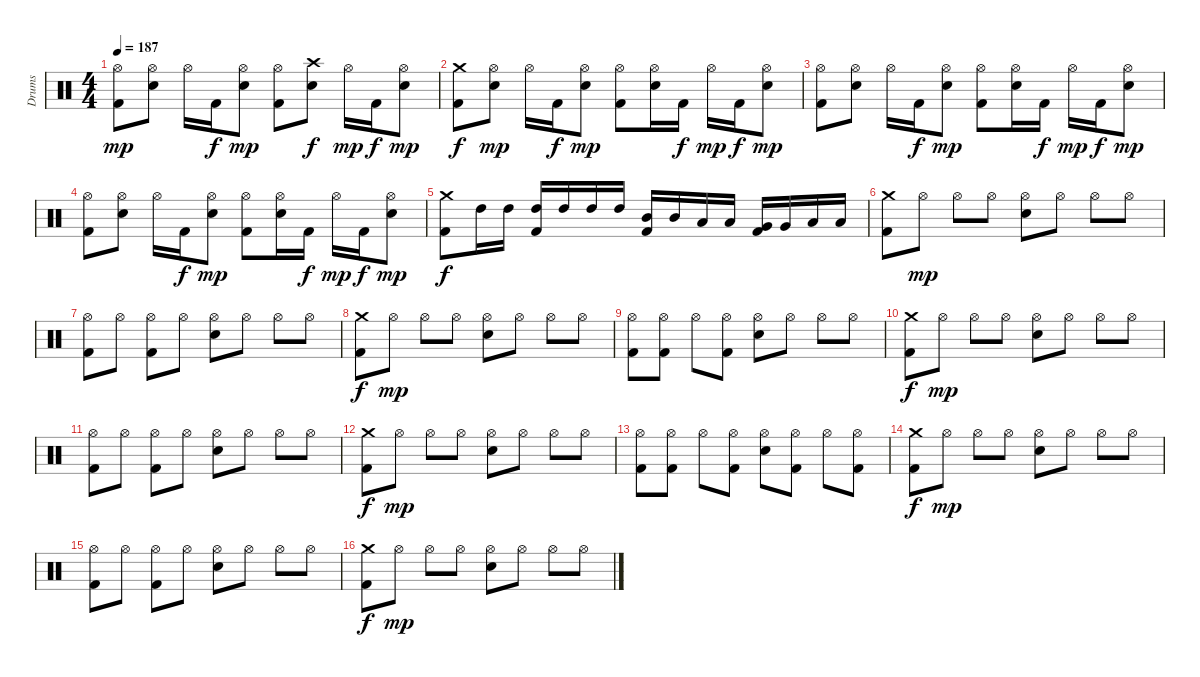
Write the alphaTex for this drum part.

\track ("Drums" "Drums") {instrument percussion}
\staff {score}
\articulation defaults
\ts (4 4)
\tempo 187
\clef neutral
\ks c
("Hi-Hat (open)" "Kick (hit) 2").8{dy mp} ("Hi-Hat (open)" "Snare (hit) 2").8 "Hi-Hat (open)".16 "Kick (hit) 2".16{dy f} ("Hi-Hat (open)" "Snare (hit) 2").8{dy mp} ("Hi-Hat (open)" "Kick (hit) 2").8 ("Crash high (hit)" "Snare (hit) 2").8{dy f} "Hi-Hat (open)".16{dy mp} "Kick (hit) 2".16{dy f} ("Hi-Hat (open)" "Snare (hit) 2").8{dy mp} |
("Crash medium (hit)" "Kick (hit) 2").8{dy f} ("Hi-Hat (open)" "Snare (hit) 2").8{dy mp} "Hi-Hat (open)".16 "Kick (hit) 2".16{dy f} ("Hi-Hat (open)" "Snare (hit) 2").8{dy mp} ("Hi-Hat (open)" "Kick (hit) 2").8 ("Hi-Hat (open)" "Snare (hit) 2").16 "Kick (hit) 2".16{dy f} "Hi-Hat (open)".16{dy mp} "Kick (hit) 2".16{dy f} ("Hi-Hat (open)" "Snare (hit) 2").8{dy mp} |
("Hi-Hat (open)" "Kick (hit) 2").8 ("Hi-Hat (open)" "Snare (hit) 2").8 "Hi-Hat (open)".16 "Kick (hit) 2".16{dy f} ("Hi-Hat (open)" "Snare (hit) 2").8{dy mp} ("Hi-Hat (open)" "Kick (hit) 2").8 ("Hi-Hat (open)" "Snare (hit) 2").16 "Kick (hit) 2".16{dy f} "Hi-Hat (open)".16{dy mp} "Kick (hit) 2".16{dy f} ("Hi-Hat (open)" "Snare (hit) 2").8{dy mp} |
("Hi-Hat (open)" "Kick (hit) 2").8 ("Hi-Hat (open)" "Snare (hit) 2").8 "Hi-Hat (open)".16 "Kick (hit) 2".16{dy f} ("Hi-Hat (open)" "Snare (hit) 2").8{dy mp} ("Hi-Hat (open)" "Kick (hit) 2").8 ("Hi-Hat (open)" "Snare (hit) 2").16 "Kick (hit) 2".16{dy f} "Hi-Hat (open)".16{dy mp} "Kick (hit) 2".16{dy f} ("Hi-Hat (open)" "Snare (hit) 2").8{dy mp} |
("Crash medium (hit)" "Kick (hit) 2").8{dy f} "High Tom (hit)".16 "High Tom (hit)".16 ("High Tom (hit)" "Kick (hit) 2").16 "High Tom (hit)".16 "High Tom (hit)".16 "High Tom (hit)".16 ("Mid Tom (hit)" "Kick (hit) 2").16 "Mid Tom (hit)".16 "Low Tom (hit)".16 "Low Tom (hit)".16 ("Very Low Tom (hit)" "Kick (hit) 2").16 "Very Low Tom (hit)".16 "Low Floor Tom (hit)".16 "Low Floor Tom (hit)".16 |
("Crash medium (hit)" "Kick (hit) 2").8 "Hi-Hat (open)".8{dy mp} "Hi-Hat (open)".8 "Hi-Hat (open)".8 ("Hi-Hat (open)" "Snare (hit) 2").8 "Hi-Hat (open)".8 "Hi-Hat (open)".8 "Hi-Hat (open)".8 |
("Hi-Hat (open)" "Kick (hit) 2").8 "Hi-Hat (open)".8 ("Hi-Hat (open)" "Kick (hit) 2").8 "Hi-Hat (open)".8 ("Hi-Hat (open)" "Snare (hit) 2").8 "Hi-Hat (open)".8 "Hi-Hat (open)".8 "Hi-Hat (open)".8 |
("Crash medium (hit)" "Kick (hit) 2").8{dy f} "Hi-Hat (open)".8{dy mp} "Hi-Hat (open)".8 "Hi-Hat (open)".8 ("Hi-Hat (open)" "Snare (hit) 2").8 "Hi-Hat (open)".8 "Hi-Hat (open)".8 "Hi-Hat (open)".8 |
("Hi-Hat (open)" "Kick (hit) 2").8 ("Hi-Hat (open)" "Kick (hit) 2").8 "Hi-Hat (open)".8 ("Hi-Hat (open)" "Kick (hit) 2").8 ("Hi-Hat (open)" "Snare (hit) 2").8 "Hi-Hat (open)".8 "Hi-Hat (open)".8 "Hi-Hat (open)".8 |
("Crash medium (hit)" "Kick (hit) 2").8{dy f} "Hi-Hat (open)".8{dy mp} "Hi-Hat (open)".8 "Hi-Hat (open)".8 ("Hi-Hat (open)" "Snare (hit) 2").8 "Hi-Hat (open)".8 "Hi-Hat (open)".8 "Hi-Hat (open)".8 |
("Hi-Hat (open)" "Kick (hit) 2").8 "Hi-Hat (open)".8 ("Hi-Hat (open)" "Kick (hit) 2").8 "Hi-Hat (open)".8 ("Hi-Hat (open)" "Snare (hit) 2").8 "Hi-Hat (open)".8 "Hi-Hat (open)".8 "Hi-Hat (open)".8 |
("Crash medium (hit)" "Kick (hit) 2").8{dy f} "Hi-Hat (open)".8{dy mp} "Hi-Hat (open)".8 "Hi-Hat (open)".8 ("Hi-Hat (open)" "Snare (hit) 2").8 "Hi-Hat (open)".8 "Hi-Hat (open)".8 "Hi-Hat (open)".8 |
("Hi-Hat (open)" "Kick (hit) 2").8 ("Hi-Hat (open)" "Kick (hit) 2").8 "Hi-Hat (open)".8 ("Hi-Hat (open)" "Kick (hit) 2").8 ("Hi-Hat (open)" "Snare (hit) 2").8 ("Hi-Hat (open)" "Kick (hit) 2").8 "Hi-Hat (open)".8 ("Hi-Hat (open)" "Kick (hit) 2").8 |
("Crash medium (hit)" "Kick (hit) 2").8{dy f} "Hi-Hat (open)".8{dy mp} "Hi-Hat (open)".8 "Hi-Hat (open)".8 ("Hi-Hat (open)" "Snare (hit) 2").8 "Hi-Hat (open)".8 "Hi-Hat (open)".8 "Hi-Hat (open)".8 |
("Hi-Hat (open)" "Kick (hit) 2").8 "Hi-Hat (open)".8 ("Hi-Hat (open)" "Kick (hit) 2").8 "Hi-Hat (open)".8 ("Hi-Hat (open)" "Snare (hit) 2").8 "Hi-Hat (open)".8 "Hi-Hat (open)".8 "Hi-Hat (open)".8 |
("Crash medium (hit)" "Kick (hit) 2").8{dy f} "Hi-Hat (open)".8{dy mp} "Hi-Hat (open)".8 "Hi-Hat (open)".8 ("Hi-Hat (open)" "Snare (hit) 2").8 "Hi-Hat (open)".8 "Hi-Hat (open)".8 "Hi-Hat (open)".8
